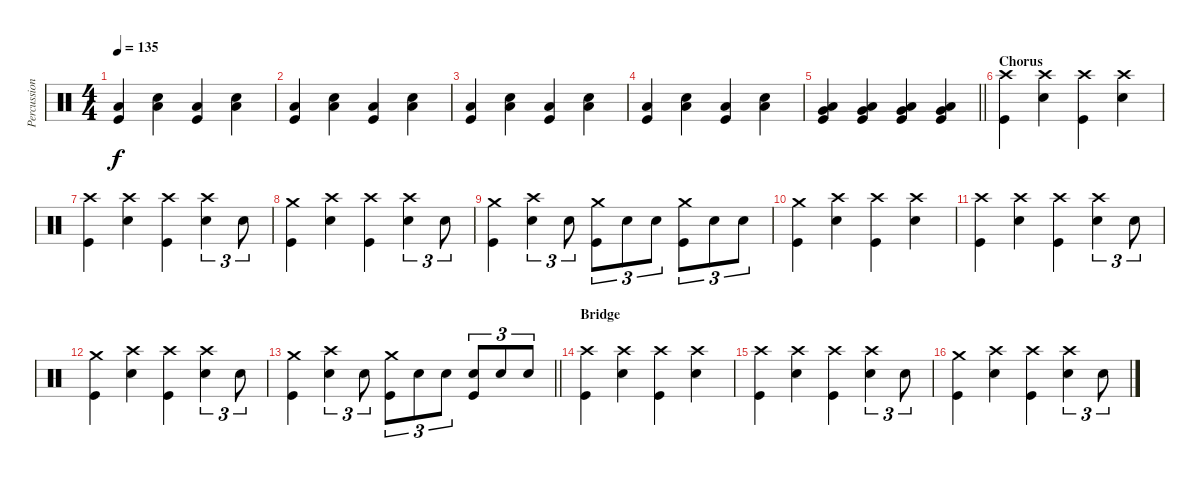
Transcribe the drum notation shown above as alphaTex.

\track ("Percussion" "Percussion") {instrument percussion}
\staff {score}
\articulation defaults
\ts (4 4)
\tempo 135
\clef neutral
\ks c
("Low Floor Tom (hit)" "Kick (hit)").4{dy f} ("Electric Snare (hit)" "Low Floor Tom (hit)").4 ("Low Floor Tom (hit)" "Kick (hit)").4 ("Electric Snare (hit)" "Low Floor Tom (hit)").4 |
("Low Floor Tom (hit)" "Kick (hit)").4 ("Electric Snare (hit)" "Low Floor Tom (hit)").4 ("Low Floor Tom (hit)" "Kick (hit)").4 ("Electric Snare (hit)" "Low Floor Tom (hit)").4 |
("Low Floor Tom (hit)" "Kick (hit)").4 ("Electric Snare (hit)" "Low Floor Tom (hit)").4 ("Low Floor Tom (hit)" "Kick (hit)").4 ("Electric Snare (hit)" "Low Floor Tom (hit)").4 |
("Low Floor Tom (hit)" "Kick (hit)").4 ("Electric Snare (hit)" "Low Floor Tom (hit)").4 ("Low Floor Tom (hit)" "Kick (hit)").4 ("Electric Snare (hit)" "Low Floor Tom (hit)").4 |
\barLineRight lightlight
("Very Low Tom (hit)" "Low Floor Tom (hit)" "Kick (hit)").4 ("Very Low Tom (hit)" "Low Floor Tom (hit)" "Kick (hit)").4 ("Very Low Tom (hit)" "Low Floor Tom (hit)" "Kick (hit)").4 ("Very Low Tom (hit)" "Low Floor Tom (hit)" "Kick (hit)").4 |
\section ("" "Chorus")
("Crash high (hit)" "Kick (hit)").4 ("Crash high (hit)" "Electric Snare (hit)").4 ("Crash high (hit)" "Kick (hit)").4 ("Crash high (hit)" "Electric Snare (hit)").4 |
("Crash high (hit)" "Kick (hit)").4 ("Crash high (hit)" "Electric Snare (hit)").4 ("Crash high (hit)" "Kick (hit)").4 ("Crash high (hit)" "Electric Snare (hit)").4{tu (3 2)} "Electric Snare (hit)".8{tu (3 2)} |
("Crash medium (hit)" "Kick (hit)").4 ("Crash high (hit)" "Electric Snare (hit)").4 ("Crash high (hit)" "Kick (hit)").4 ("Crash high (hit)" "Electric Snare (hit)").4{tu (3 2)} "Electric Snare (hit)".8{tu (3 2)} |
("Crash medium (hit)" "Kick (hit)").4 ("Crash high (hit)" "Electric Snare (hit)").4{tu (3 2)} "Electric Snare (hit)".8{tu (3 2)} ("Crash medium (hit)" "Kick (hit)").8{tu (3 2)} "Electric Snare (hit)".8{tu (3 2)} "Electric Snare (hit)".8{tu (3 2)} ("Crash medium (hit)" "Kick (hit)").8{tu (3 2)} "Electric Snare (hit)".8{tu (3 2)} "Electric Snare (hit)".8{tu (3 2)} |
("Crash medium (hit)" "Kick (hit)").4 ("Crash high (hit)" "Electric Snare (hit)").4 ("Crash high (hit)" "Kick (hit)").4 ("Crash high (hit)" "Electric Snare (hit)").4 |
("Crash high (hit)" "Kick (hit)").4 ("Crash high (hit)" "Electric Snare (hit)").4 ("Crash high (hit)" "Kick (hit)").4 ("Crash high (hit)" "Electric Snare (hit)").4{tu (3 2)} "Electric Snare (hit)".8{tu (3 2)} |
("Crash medium (hit)" "Kick (hit)").4 ("Crash high (hit)" "Electric Snare (hit)").4 ("Crash high (hit)" "Kick (hit)").4 ("Crash high (hit)" "Electric Snare (hit)").4{tu (3 2)} "Electric Snare (hit)".8{tu (3 2)} |
\barLineRight lightlight
("Crash medium (hit)" "Kick (hit)").4 ("Crash high (hit)" "Electric Snare (hit)").4{tu (3 2)} "Electric Snare (hit)".8{tu (3 2)} ("Crash medium (hit)" "Kick (hit)").8{tu (3 2)} "Electric Snare (hit)".8{tu (3 2)} "Electric Snare (hit)".8{tu (3 2)} ("Electric Snare (hit)" "Kick (hit)").8{tu (3 2)} "Electric Snare (hit)".8{tu (3 2)} "Electric Snare (hit)".8{tu (3 2)} |
\section ("" "Bridge")
("Crash high (hit)" "Kick (hit)").4 ("Crash high (hit)" "Electric Snare (hit)").4 ("Crash high (hit)" "Kick (hit)").4 ("Crash high (hit)" "Electric Snare (hit)").4 |
("Crash high (hit)" "Kick (hit)").4 ("Crash high (hit)" "Electric Snare (hit)").4 ("Crash high (hit)" "Kick (hit)").4 ("Crash high (hit)" "Electric Snare (hit)").4{tu (3 2)} "Electric Snare (hit)".8{tu (3 2)} |
("Crash medium (hit)" "Kick (hit)").4 ("Crash high (hit)" "Electric Snare (hit)").4 ("Crash high (hit)" "Kick (hit)").4 ("Crash high (hit)" "Electric Snare (hit)").4{tu (3 2)} "Electric Snare (hit)".8{tu (3 2)}
